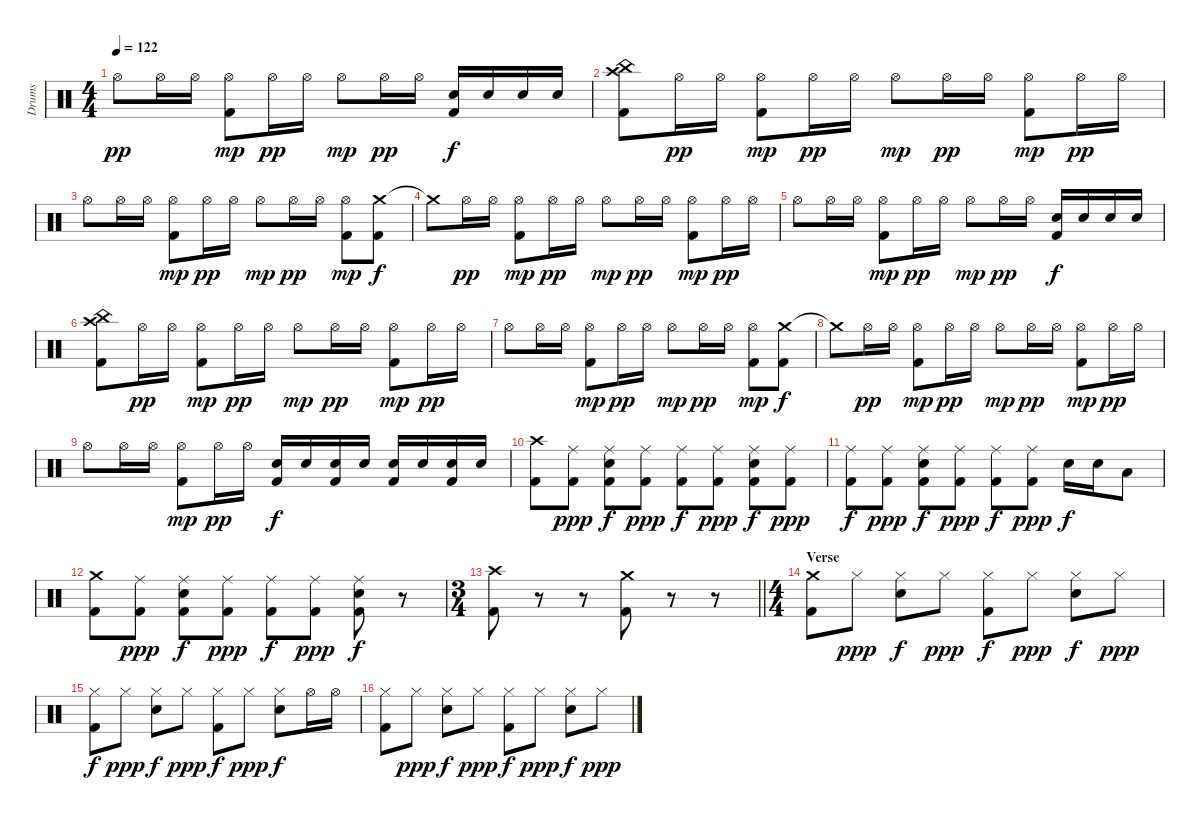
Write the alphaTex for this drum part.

\track ("Drums" "Drums") {instrument percussion}
\staff {score}
\articulation defaults
\ts (4 4)
\tempo 122
\clef neutral
\ks c "Hi-Hat (open)".8{dy pp} "Hi-Hat (open)".16 "Hi-Hat (open)".16
("Hi-Hat (open)" "Kick (hit) 2").8{dy mp} "Hi-Hat (open)".16{dy pp} "Hi-Hat (open)".16 "Hi-Hat (open)".8{dy mp} "Hi-Hat (open)".16{dy pp} "Hi-Hat (open)".16 ("Electric Snare (hit)" "Kick (hit) 2").16{dy f} "Electric Snare (hit)".16 "Electric Snare (hit)".16 "Electric Snare (hit)".16 |
("China (hit)" "Crash high (hit)" "Kick (hit) 2").8 "Hi-Hat (open)".16{dy pp} "Hi-Hat (open)".16 ("Hi-Hat (open)" "Kick (hit) 2").8{dy mp} "Hi-Hat (open)".16{dy pp} "Hi-Hat (open)".16 "Hi-Hat (open)".8{dy mp} "Hi-Hat (open)".16{dy pp} "Hi-Hat (open)".16 ("Hi-Hat (open)" "Kick (hit) 2").8{dy mp} "Hi-Hat (open)".16{dy pp} "Hi-Hat (open)".16 |
"Hi-Hat (open)".8 "Hi-Hat (open)".16 "Hi-Hat (open)".16 ("Hi-Hat (open)" "Kick (hit) 2").8{dy mp} "Hi-Hat (open)".16{dy pp} "Hi-Hat (open)".16 "Hi-Hat (open)".8{dy mp} "Hi-Hat (open)".16{dy pp} "Hi-Hat (open)".16 ("Hi-Hat (open)" "Kick (hit) 2").8{dy mp} ("Crash medium (hit)" "Kick (hit) 2").8{dy f} |
"Crash medium (hit)"{t}.8 "Hi-Hat (open)".16{dy pp} "Hi-Hat (open)".16 ("Hi-Hat (open)" "Kick (hit) 2").8{dy mp} "Hi-Hat (open)".16{dy pp} "Hi-Hat (open)".16 "Hi-Hat (open)".8{dy mp} "Hi-Hat (open)".16{dy pp} "Hi-Hat (open)".16 ("Hi-Hat (open)" "Kick (hit) 2").8{dy mp} "Hi-Hat (open)".16{dy pp} "Hi-Hat (open)".16 |
"Hi-Hat (open)".8 "Hi-Hat (open)".16 "Hi-Hat (open)".16 ("Hi-Hat (open)" "Kick (hit) 2").8{dy mp} "Hi-Hat (open)".16{dy pp} "Hi-Hat (open)".16 "Hi-Hat (open)".8{dy mp} "Hi-Hat (open)".16{dy pp} "Hi-Hat (open)".16 ("Electric Snare (hit)" "Kick (hit) 2").16{dy f} "Electric Snare (hit)".16 "Electric Snare (hit)".16 "Electric Snare (hit)".16 |
("China (hit)" "Crash high (hit)" "Kick (hit) 2").8 "Hi-Hat (open)".16{dy pp} "Hi-Hat (open)".16 ("Hi-Hat (open)" "Kick (hit) 2").8{dy mp} "Hi-Hat (open)".16{dy pp} "Hi-Hat (open)".16 "Hi-Hat (open)".8{dy mp} "Hi-Hat (open)".16{dy pp} "Hi-Hat (open)".16 ("Hi-Hat (open)" "Kick (hit) 2").8{dy mp} "Hi-Hat (open)".16{dy pp} "Hi-Hat (open)".16 |
"Hi-Hat (open)".8 "Hi-Hat (open)".16 "Hi-Hat (open)".16 ("Hi-Hat (open)" "Kick (hit) 2").8{dy mp} "Hi-Hat (open)".16{dy pp} "Hi-Hat (open)".16 "Hi-Hat (open)".8{dy mp} "Hi-Hat (open)".16{dy pp} "Hi-Hat (open)".16 ("Hi-Hat (open)" "Kick (hit) 2").8{dy mp} ("Crash medium (hit)" "Kick (hit) 2").8{dy f} |
"Crash medium (hit)"{t}.8 "Hi-Hat (open)".16{dy pp} "Hi-Hat (open)".16 ("Hi-Hat (open)" "Kick (hit) 2").8{dy mp} "Hi-Hat (open)".16{dy pp} "Hi-Hat (open)".16 "Hi-Hat (open)".8{dy mp} "Hi-Hat (open)".16{dy pp} "Hi-Hat (open)".16 ("Hi-Hat (open)" "Kick (hit) 2").8{dy mp} "Hi-Hat (open)".16{dy pp} "Hi-Hat (open)".16 |
"Hi-Hat (open)".8 "Hi-Hat (open)".16 "Hi-Hat (open)".16 ("Hi-Hat (open)" "Kick (hit) 2").8{dy mp} "Hi-Hat (open)".16{dy pp} "Hi-Hat (open)".16 ("Electric Snare (hit)" "Kick (hit) 2").16{dy f} "Electric Snare (hit)".16 ("Electric Snare (hit)" "Kick (hit) 2").16 "Electric Snare (hit)".16 ("Electric Snare (hit)" "Kick (hit) 2").16 "Electric Snare (hit)".16 ("Electric Snare (hit)" "Kick (hit) 2").16 "Electric Snare (hit)".16 |
("Crash high (hit)" "Kick (hit) 2").8 ("Ride (middle)" "Kick (hit) 2").8{dy ppp} ("Ride (middle)" "Electric Snare (hit)" "Kick (hit) 2").8{dy f} ("Ride (middle)" "Kick (hit) 2").8{dy ppp} ("Ride (middle)" "Kick (hit) 2").8{dy f} ("Ride (middle)" "Kick (hit) 2").8{dy ppp} ("Ride (middle)" "Electric Snare (hit)" "Kick (hit) 2").8{dy f} ("Ride (middle)" "Kick (hit) 2").8{dy ppp} |
("Ride (middle)" "Kick (hit) 2").8{dy f} ("Ride (middle)" "Kick (hit) 2").8{dy ppp} ("Ride (middle)" "Electric Snare (hit)" "Kick (hit) 2").8{dy f} ("Ride (middle)" "Kick (hit) 2").8{dy ppp} ("Ride (middle)" "Kick (hit) 2").8{dy f} ("Ride (middle)" "Kick (hit) 2").8{dy ppp} "Electric Snare (hit)".16{dy f} "Electric Snare (hit)".16 "Low Tom (hit)".8 |
("Crash medium (hit)" "Kick (hit) 2").8 ("Ride (middle)" "Kick (hit) 2").8{dy ppp} ("Ride (middle)" "Electric Snare (hit)" "Kick (hit) 2").8{dy f} ("Ride (middle)" "Kick (hit) 2").8{dy ppp} ("Ride (middle)" "Kick (hit) 2").8{dy f} ("Ride (middle)" "Kick (hit) 2").8{dy ppp} ("Ride (middle)" "Electric Snare (hit)" "Kick (hit) 2").8{dy f} r.8 |
\ts (3 4)
\barLineRight lightlight
("Crash high (hit)" "Kick (hit) 2").8 r.8 r.8 ("Crash medium (hit)" "Kick (hit) 2").8 r.8 r.8 |
\ts (4 4)
\section ("" "Verse")
("Crash medium (hit)" "Kick (hit) 2").8 "Hi-Hat (closed)".8{dy ppp} ("Hi-Hat (closed)" "Electric Snare (hit)").8{dy f} "Hi-Hat (closed)".8{dy ppp} ("Hi-Hat (closed)" "Kick (hit) 2").8{dy f} "Hi-Hat (closed)".8{dy ppp} ("Hi-Hat (closed)" "Electric Snare (hit)").8{dy f} "Hi-Hat (closed)".8{dy ppp} |
("Hi-Hat (closed)" "Kick (hit) 2").8{dy f} "Hi-Hat (closed)".8{dy ppp} ("Hi-Hat (closed)" "Electric Snare (hit)").8{dy f} "Hi-Hat (closed)".8{dy ppp} ("Hi-Hat (closed)" "Kick (hit) 2").8{dy f} "Hi-Hat (closed)".8{dy ppp} ("Hi-Hat (closed)" "Electric Snare (hit)").8{dy f} "Hi-Hat (open)".16 "Hi-Hat (open)".16 |
("Hi-Hat (closed)" "Kick (hit) 2").8 "Hi-Hat (closed)".8{dy ppp} ("Hi-Hat (closed)" "Electric Snare (hit)").8{dy f} "Hi-Hat (closed)".8{dy ppp} ("Hi-Hat (closed)" "Kick (hit) 2").8{dy f} "Hi-Hat (closed)".8{dy ppp} ("Hi-Hat (closed)" "Electric Snare (hit)").8{dy f} "Hi-Hat (closed)".8{dy ppp}
